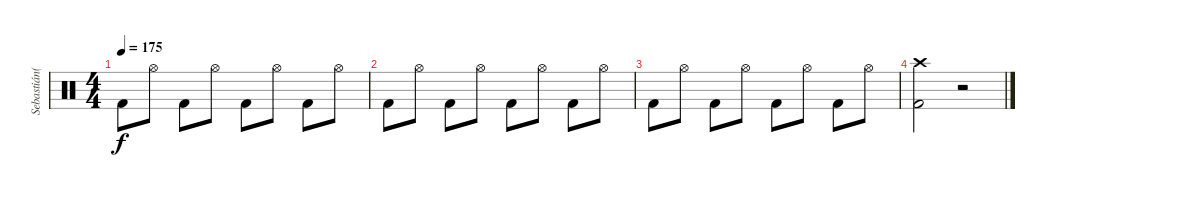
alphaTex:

\track ("Sebastián(Bateria)" "Sebastián(") {instrument percussion}
\staff {score}
\articulation defaults
\ts (4 4)
\tempo 175
\clef neutral
\ks c "Kick (hit) 2".8{dy f} "Hi-Hat (open)".8 "Kick (hit) 2".8 "Hi-Hat (open)".8 "Kick (hit) 2".8 "Hi-Hat (open)".8 "Kick (hit) 2".8 "Hi-Hat (open)".8
|
"Kick (hit) 2".8 "Hi-Hat (open)".8 "Kick (hit) 2".8 "Hi-Hat (open)".8 "Kick (hit) 2".8 "Hi-Hat (open)".8 "Kick (hit) 2".8 "Hi-Hat (open)".8 |
"Kick (hit) 2".8 "Hi-Hat (open)".8 "Kick (hit) 2".8 "Hi-Hat (open)".8 "Kick (hit) 2".8 "Hi-Hat (open)".8 "Kick (hit) 2".8 "Hi-Hat (open)".8 |
("Crash high (hit)" "Kick (hit) 2").2 r.2
